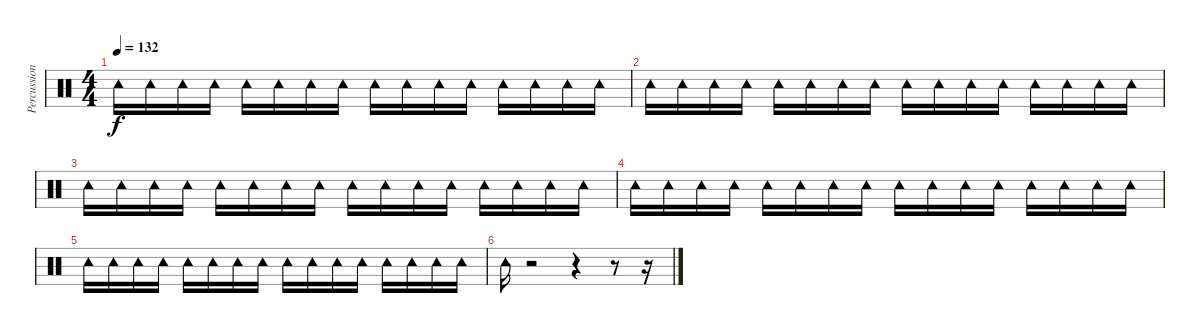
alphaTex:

\track ("Percussion" "Percussion") {instrument percussion}
\staff {score}
\articulation defaults
\ts (4 4)
\tempo 132
\clef neutral
\ks c "Tambourine (hit)".16{dy f} "Tambourine (hit)".16 "Tambourine (hit)".16 "Tambourine (hit)".16 "Tambourine (hit)".16 "Tambourine (hit)".16 "Tambourine (hit)".16 "Tambourine (hit)".16 "Tambourine (hit)".16 "Tambourine (hit)".16 "Tambourine (hit)".16 "Tambourine (hit)".16 "Tambourine (hit)".16 "Tambourine (hit)".16 "Tambourine (hit)".16 "Tambourine (hit)".16
|
"Tambourine (hit)".16 "Tambourine (hit)".16 "Tambourine (hit)".16 "Tambourine (hit)".16 "Tambourine (hit)".16 "Tambourine (hit)".16 "Tambourine (hit)".16 "Tambourine (hit)".16 "Tambourine (hit)".16 "Tambourine (hit)".16 "Tambourine (hit)".16 "Tambourine (hit)".16 "Tambourine (hit)".16 "Tambourine (hit)".16 "Tambourine (hit)".16 "Tambourine (hit)".16 |
"Tambourine (hit)".16 "Tambourine (hit)".16 "Tambourine (hit)".16 "Tambourine (hit)".16 "Tambourine (hit)".16 "Tambourine (hit)".16 "Tambourine (hit)".16 "Tambourine (hit)".16 "Tambourine (hit)".16 "Tambourine (hit)".16 "Tambourine (hit)".16 "Tambourine (hit)".16 "Tambourine (hit)".16 "Tambourine (hit)".16 "Tambourine (hit)".16 "Tambourine (hit)".16 |
"Tambourine (hit)".16 "Tambourine (hit)".16 "Tambourine (hit)".16 "Tambourine (hit)".16 "Tambourine (hit)".16 "Tambourine (hit)".16 "Tambourine (hit)".16 "Tambourine (hit)".16 "Tambourine (hit)".16 "Tambourine (hit)".16 "Tambourine (hit)".16 "Tambourine (hit)".16 "Tambourine (hit)".16 "Tambourine (hit)".16 "Tambourine (hit)".16 "Tambourine (hit)".16 |
"Tambourine (hit)".16 "Tambourine (hit)".16 "Tambourine (hit)".16 "Tambourine (hit)".16 "Tambourine (hit)".16 "Tambourine (hit)".16 "Tambourine (hit)".16 "Tambourine (hit)".16 "Tambourine (hit)".16 "Tambourine (hit)".16 "Tambourine (hit)".16 "Tambourine (hit)".16 "Tambourine (hit)".16 "Tambourine (hit)".16 "Tambourine (hit)".16 "Tambourine (hit)".16 |
"Tambourine (hit)".16 r.2 r.4 r.8 r.16
